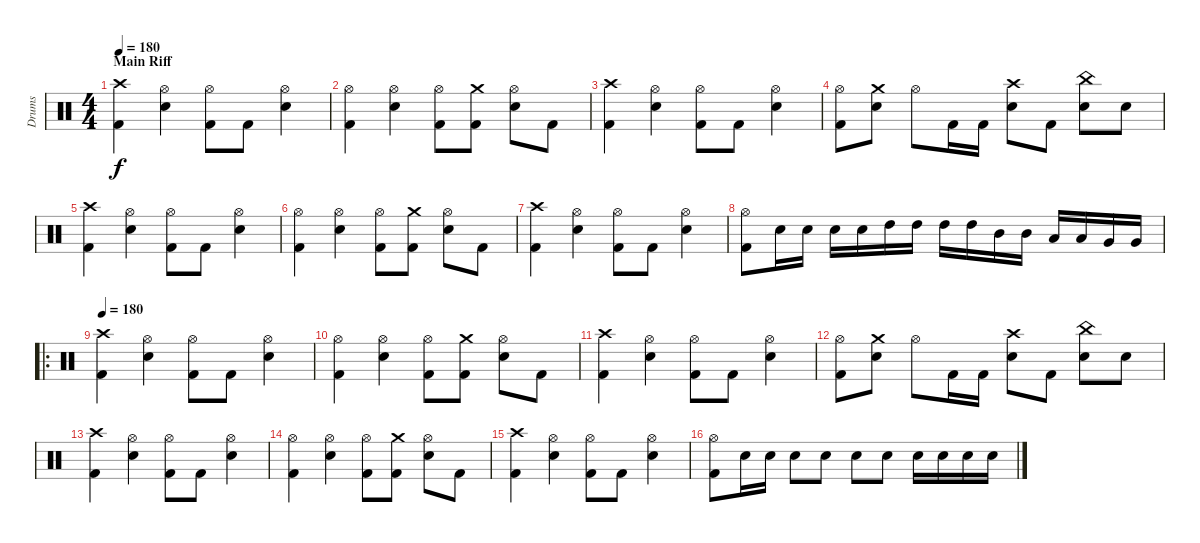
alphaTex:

\track ("Drums" "Drums") {instrument percussion}
\staff {score}
\articulation defaults
\ts (4 4)
\section ("" "Main Riff")
\tempo 180
\clef neutral
\ks c
("Crash high (hit)" "Kick (hit) 2").4{dy f} ("Hi-Hat (open)" "Electric Snare (hit)").4 ("Hi-Hat (open)" "Kick (hit) 2").8 "Kick (hit) 2".8 ("Hi-Hat (open)" "Electric Snare (hit)").4 |
("Hi-Hat (open)" "Kick (hit) 2").4 ("Hi-Hat (open)" "Electric Snare (hit)").4 ("Hi-Hat (open)" "Kick (hit) 2").8 ("Crash medium (hit)" "Kick (hit) 2").8 ("Hi-Hat (open)" "Electric Snare (hit)").8 "Kick (hit) 2".8 |
("Crash high (hit)" "Kick (hit) 2").4 ("Hi-Hat (open)" "Electric Snare (hit)").4 ("Hi-Hat (open)" "Kick (hit) 2").8 "Kick (hit) 2".8 ("Hi-Hat (open)" "Electric Snare (hit)").4 |
("Hi-Hat (open)" "Kick (hit) 2").8 ("Crash medium (hit)" "Electric Snare (hit)").8 "Hi-Hat (open)".8 "Kick (hit) 2".16 "Kick (hit) 2".16 ("Crash high (hit)" "Electric Snare (hit)").8 "Kick (hit) 2".8 ("China (hit)" "Electric Snare (hit)").8 "Electric Snare (hit)".8 |
("Crash high (hit)" "Kick (hit) 2").4 ("Hi-Hat (open)" "Electric Snare (hit)").4 ("Hi-Hat (open)" "Kick (hit) 2").8 "Kick (hit) 2".8 ("Hi-Hat (open)" "Electric Snare (hit)").4 |
("Hi-Hat (open)" "Kick (hit) 2").4 ("Hi-Hat (open)" "Electric Snare (hit)").4 ("Hi-Hat (open)" "Kick (hit) 2").8 ("Crash medium (hit)" "Kick (hit) 2").8 ("Hi-Hat (open)" "Electric Snare (hit)").8 "Kick (hit) 2".8 |
("Crash high (hit)" "Kick (hit) 2").4 ("Hi-Hat (open)" "Electric Snare (hit)").4 ("Hi-Hat (open)" "Kick (hit) 2").8 "Kick (hit) 2".8 ("Hi-Hat (open)" "Electric Snare (hit)").4 |
("Hi-Hat (open)" "Kick (hit) 2").8 "Electric Snare (hit)".16 "Electric Snare (hit)".16 "Electric Snare (hit)".16 "Electric Snare (hit)".16 "High Tom (hit)".16 "High Tom (hit)".16 "High Tom (hit)".16 "High Tom (hit)".16 "Mid Tom (hit)".16 "Mid Tom (hit)".16 "Low Tom (hit)".16 "Low Tom (hit)".16 "Very Low Tom (hit)".16 "Very Low Tom (hit)".16 |
\ro
\tempo 180
("Crash high (hit)" "Kick (hit) 2").4 ("Hi-Hat (open)" "Electric Snare (hit)").4 ("Hi-Hat (open)" "Kick (hit) 2").8 "Kick (hit) 2".8 ("Hi-Hat (open)" "Electric Snare (hit)").4 |
("Hi-Hat (open)" "Kick (hit) 2").4 ("Hi-Hat (open)" "Electric Snare (hit)").4 ("Hi-Hat (open)" "Kick (hit) 2").8 ("Crash medium (hit)" "Kick (hit) 2").8 ("Hi-Hat (open)" "Electric Snare (hit)").8 "Kick (hit) 2".8 |
("Crash high (hit)" "Kick (hit) 2").4 ("Hi-Hat (open)" "Electric Snare (hit)").4 ("Hi-Hat (open)" "Kick (hit) 2").8 "Kick (hit) 2".8 ("Hi-Hat (open)" "Electric Snare (hit)").4 |
("Hi-Hat (open)" "Kick (hit) 2").8 ("Crash medium (hit)" "Electric Snare (hit)").8 "Hi-Hat (open)".8 "Kick (hit) 2".16 "Kick (hit) 2".16 ("Crash high (hit)" "Electric Snare (hit)").8 "Kick (hit) 2".8 ("China (hit)" "Electric Snare (hit)").8 "Electric Snare (hit)".8 |
("Crash high (hit)" "Kick (hit) 2").4 ("Hi-Hat (open)" "Electric Snare (hit)").4 ("Hi-Hat (open)" "Kick (hit) 2").8 "Kick (hit) 2".8 ("Hi-Hat (open)" "Electric Snare (hit)").4 |
("Hi-Hat (open)" "Kick (hit) 2").4 ("Hi-Hat (open)" "Electric Snare (hit)").4 ("Hi-Hat (open)" "Kick (hit) 2").8 ("Crash medium (hit)" "Kick (hit) 2").8 ("Hi-Hat (open)" "Electric Snare (hit)").8 "Kick (hit) 2".8 |
("Crash high (hit)" "Kick (hit) 2").4 ("Hi-Hat (open)" "Electric Snare (hit)").4 ("Hi-Hat (open)" "Kick (hit) 2").8 "Kick (hit) 2".8 ("Hi-Hat (open)" "Electric Snare (hit)").4 |
("Hi-Hat (open)" "Kick (hit) 2").8 "Electric Snare (hit)".16 "Electric Snare (hit)".16 "Electric Snare (hit)".8 "Electric Snare (hit)".8 "Electric Snare (hit)".8 "Electric Snare (hit)".8 "Electric Snare (hit)".16 "Electric Snare (hit)".16 "Electric Snare (hit)".16 "Electric Snare (hit)".16
